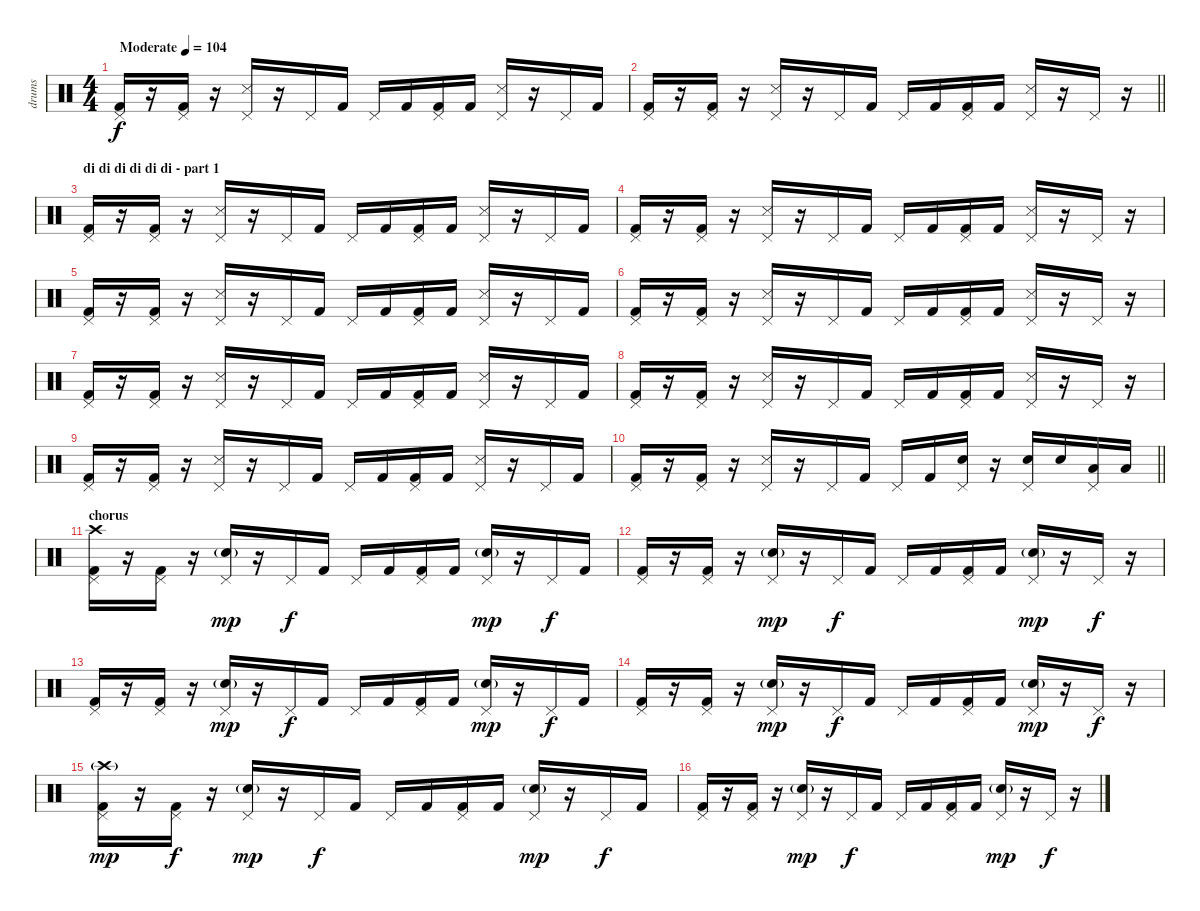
\track ("drums" "drums") {instrument percussion}
\staff {score}
\articulation defaults
\ts (4 4)
\tempo (104 "Moderate")
\clef neutral
\ks c
("Kick (hit) 2" "Pedal Hi-Hat (hit)").16{dy f} r.16 ("Kick (hit) 2" "Pedal Hi-Hat (hit)").16 r.16 ("Snare (side stick) 3" "Pedal Hi-Hat (hit)").16 r.16 "Pedal Hi-Hat (hit)".16 "Kick (hit) 2".16 "Pedal Hi-Hat (hit)".16 "Kick (hit) 2".16 ("Kick (hit) 2" "Pedal Hi-Hat (hit)").16 "Kick (hit) 2".16 ("Snare (side stick) 3" "Pedal Hi-Hat (hit)").16 r.16 "Pedal Hi-Hat (hit)".16 "Kick (hit) 2".16 |
\barLineRight lightlight
("Kick (hit) 2" "Pedal Hi-Hat (hit)").16 r.16 ("Kick (hit) 2" "Pedal Hi-Hat (hit)").16 r.16 ("Snare (side stick) 3" "Pedal Hi-Hat (hit)").16 r.16 "Pedal Hi-Hat (hit)".16 "Kick (hit) 2".16 "Pedal Hi-Hat (hit)".16 "Kick (hit) 2".16 ("Kick (hit) 2" "Pedal Hi-Hat (hit)").16 "Kick (hit) 2".16 ("Snare (side stick) 3" "Pedal Hi-Hat (hit)").16 r.16 "Pedal Hi-Hat (hit)".16 r.16 |
\section ("" "di di di di di di - part 1")
("Kick (hit) 2" "Pedal Hi-Hat (hit)").16 r.16 ("Kick (hit) 2" "Pedal Hi-Hat (hit)").16 r.16 ("Snare (side stick) 3" "Pedal Hi-Hat (hit)").16 r.16 "Pedal Hi-Hat (hit)".16 "Kick (hit) 2".16 "Pedal Hi-Hat (hit)".16 "Kick (hit) 2".16 ("Kick (hit) 2" "Pedal Hi-Hat (hit)").16 "Kick (hit) 2".16 ("Snare (side stick) 3" "Pedal Hi-Hat (hit)").16 r.16 "Pedal Hi-Hat (hit)".16 "Kick (hit) 2".16 |
("Kick (hit) 2" "Pedal Hi-Hat (hit)").16 r.16 ("Kick (hit) 2" "Pedal Hi-Hat (hit)").16 r.16 ("Snare (side stick) 3" "Pedal Hi-Hat (hit)").16 r.16 "Pedal Hi-Hat (hit)".16 "Kick (hit) 2".16 "Pedal Hi-Hat (hit)".16 "Kick (hit) 2".16 ("Kick (hit) 2" "Pedal Hi-Hat (hit)").16 "Kick (hit) 2".16 ("Snare (side stick) 3" "Pedal Hi-Hat (hit)").16 r.16 "Pedal Hi-Hat (hit)".16 r.16 |
("Kick (hit) 2" "Pedal Hi-Hat (hit)").16 r.16 ("Kick (hit) 2" "Pedal Hi-Hat (hit)").16 r.16 ("Snare (side stick) 3" "Pedal Hi-Hat (hit)").16 r.16 "Pedal Hi-Hat (hit)".16 "Kick (hit) 2".16 "Pedal Hi-Hat (hit)".16 "Kick (hit) 2".16 ("Kick (hit) 2" "Pedal Hi-Hat (hit)").16 "Kick (hit) 2".16 ("Snare (side stick) 3" "Pedal Hi-Hat (hit)").16 r.16 "Pedal Hi-Hat (hit)".16 "Kick (hit) 2".16 |
("Kick (hit) 2" "Pedal Hi-Hat (hit)").16 r.16 ("Kick (hit) 2" "Pedal Hi-Hat (hit)").16 r.16 ("Snare (side stick) 3" "Pedal Hi-Hat (hit)").16 r.16 "Pedal Hi-Hat (hit)".16 "Kick (hit) 2".16 "Pedal Hi-Hat (hit)".16 "Kick (hit) 2".16 ("Kick (hit) 2" "Pedal Hi-Hat (hit)").16 "Kick (hit) 2".16 ("Snare (side stick) 3" "Pedal Hi-Hat (hit)").16 r.16 "Pedal Hi-Hat (hit)".16 r.16 |
("Kick (hit) 2" "Pedal Hi-Hat (hit)").16 r.16 ("Kick (hit) 2" "Pedal Hi-Hat (hit)").16 r.16 ("Snare (side stick) 3" "Pedal Hi-Hat (hit)").16 r.16 "Pedal Hi-Hat (hit)".16 "Kick (hit) 2".16 "Pedal Hi-Hat (hit)".16 "Kick (hit) 2".16 ("Kick (hit) 2" "Pedal Hi-Hat (hit)").16 "Kick (hit) 2".16 ("Snare (side stick) 3" "Pedal Hi-Hat (hit)").16 r.16 "Pedal Hi-Hat (hit)".16 "Kick (hit) 2".16 |
("Kick (hit) 2" "Pedal Hi-Hat (hit)").16 r.16 ("Kick (hit) 2" "Pedal Hi-Hat (hit)").16 r.16 ("Snare (side stick) 3" "Pedal Hi-Hat (hit)").16 r.16 "Pedal Hi-Hat (hit)".16 "Kick (hit) 2".16 "Pedal Hi-Hat (hit)".16 "Kick (hit) 2".16 ("Kick (hit) 2" "Pedal Hi-Hat (hit)").16 "Kick (hit) 2".16 ("Snare (side stick) 3" "Pedal Hi-Hat (hit)").16 r.16 "Pedal Hi-Hat (hit)".16 r.16 |
("Kick (hit) 2" "Pedal Hi-Hat (hit)").16 r.16 ("Kick (hit) 2" "Pedal Hi-Hat (hit)").16 r.16 ("Snare (side stick) 3" "Pedal Hi-Hat (hit)").16 r.16 "Pedal Hi-Hat (hit)".16 "Kick (hit) 2".16 "Pedal Hi-Hat (hit)".16 "Kick (hit) 2".16 ("Kick (hit) 2" "Pedal Hi-Hat (hit)").16 "Kick (hit) 2".16 ("Snare (side stick) 3" "Pedal Hi-Hat (hit)").16 r.16 "Pedal Hi-Hat (hit)".16 "Kick (hit) 2".16 |
\barLineRight lightlight
("Kick (hit) 2" "Pedal Hi-Hat (hit)").16 r.16 ("Kick (hit) 2" "Pedal Hi-Hat (hit)").16 r.16 ("Snare (side stick) 3" "Pedal Hi-Hat (hit)").16 r.16 "Pedal Hi-Hat (hit)".16 "Kick (hit) 2".16 "Pedal Hi-Hat (hit)".16 "Kick (hit) 2".16 ("Snare (hit) 2" "Pedal Hi-Hat (hit)").16 r.16 ("Snare (hit) 2" "Pedal Hi-Hat (hit)").16 "Snare (hit) 2".16 ("Low Tom (hit)" "Pedal Hi-Hat (hit)").16 "Low Tom (hit)".16 |
\section ("" "chorus")
("Kick (hit) 2" "Pedal Hi-Hat (hit)" "Crash high (hit)").16 r.16 ("Kick (hit) 2" "Pedal Hi-Hat (hit)").16 r.16 ("Snare (hit) 2"{g} "Pedal Hi-Hat (hit)").16{dy mp} r.16 "Pedal Hi-Hat (hit)".16{dy f} "Kick (hit) 2".16 "Pedal Hi-Hat (hit)".16 "Kick (hit) 2".16 ("Kick (hit) 2" "Pedal Hi-Hat (hit)").16 "Kick (hit) 2".16 ("Snare (hit) 2"{g} "Pedal Hi-Hat (hit)").16{dy mp} r.16 "Pedal Hi-Hat (hit)".16{dy f} "Kick (hit) 2".16 |
("Kick (hit) 2" "Pedal Hi-Hat (hit)").16 r.16 ("Kick (hit) 2" "Pedal Hi-Hat (hit)").16 r.16 ("Snare (hit) 2"{g} "Pedal Hi-Hat (hit)").16{dy mp} r.16 "Pedal Hi-Hat (hit)".16{dy f} "Kick (hit) 2".16 "Pedal Hi-Hat (hit)".16 "Kick (hit) 2".16 ("Kick (hit) 2" "Pedal Hi-Hat (hit)").16 "Kick (hit) 2".16 ("Snare (hit) 2"{g} "Pedal Hi-Hat (hit)").16{dy mp} r.16 "Pedal Hi-Hat (hit)".16{dy f} r.16 |
("Kick (hit) 2" "Pedal Hi-Hat (hit)").16 r.16 ("Kick (hit) 2" "Pedal Hi-Hat (hit)").16 r.16 ("Snare (hit) 2"{g} "Pedal Hi-Hat (hit)").16{dy mp} r.16 "Pedal Hi-Hat (hit)".16{dy f} "Kick (hit) 2".16 "Pedal Hi-Hat (hit)".16 "Kick (hit) 2".16 ("Kick (hit) 2" "Pedal Hi-Hat (hit)").16 "Kick (hit) 2".16 ("Snare (hit) 2"{g} "Pedal Hi-Hat (hit)").16{dy mp} r.16 "Pedal Hi-Hat (hit)".16{dy f} "Kick (hit) 2".16 |
("Kick (hit) 2" "Pedal Hi-Hat (hit)").16 r.16 ("Kick (hit) 2" "Pedal Hi-Hat (hit)").16 r.16 ("Snare (hit) 2"{g} "Pedal Hi-Hat (hit)").16{dy mp} r.16 "Pedal Hi-Hat (hit)".16{dy f} "Kick (hit) 2".16 "Pedal Hi-Hat (hit)".16 "Kick (hit) 2".16 ("Kick (hit) 2" "Pedal Hi-Hat (hit)").16 "Kick (hit) 2".16 ("Snare (hit) 2"{g} "Pedal Hi-Hat (hit)").16{dy mp} r.16 "Pedal Hi-Hat (hit)".16{dy f} r.16 |
("Kick (hit) 2" "Pedal Hi-Hat (hit)" "Crash high (hit)"{g}).16{dy mp} r.16 ("Kick (hit) 2" "Pedal Hi-Hat (hit)").16{dy f} r.16 ("Snare (hit) 2"{g} "Pedal Hi-Hat (hit)").16{dy mp} r.16 "Pedal Hi-Hat (hit)".16{dy f} "Kick (hit) 2".16 "Pedal Hi-Hat (hit)".16 "Kick (hit) 2".16 ("Kick (hit) 2" "Pedal Hi-Hat (hit)").16 "Kick (hit) 2".16 ("Snare (hit) 2"{g} "Pedal Hi-Hat (hit)").16{dy mp} r.16 "Pedal Hi-Hat (hit)".16{dy f} "Kick (hit) 2".16 |
("Kick (hit) 2" "Pedal Hi-Hat (hit)").16 r.16 ("Kick (hit) 2" "Pedal Hi-Hat (hit)").16 r.16 ("Snare (hit) 2"{g} "Pedal Hi-Hat (hit)").16{dy mp} r.16 "Pedal Hi-Hat (hit)".16{dy f} "Kick (hit) 2".16 "Pedal Hi-Hat (hit)".16 "Kick (hit) 2".16 ("Kick (hit) 2" "Pedal Hi-Hat (hit)").16 "Kick (hit) 2".16 ("Snare (hit) 2"{g} "Pedal Hi-Hat (hit)").16{dy mp} r.16 "Pedal Hi-Hat (hit)".16{dy f} r.16
